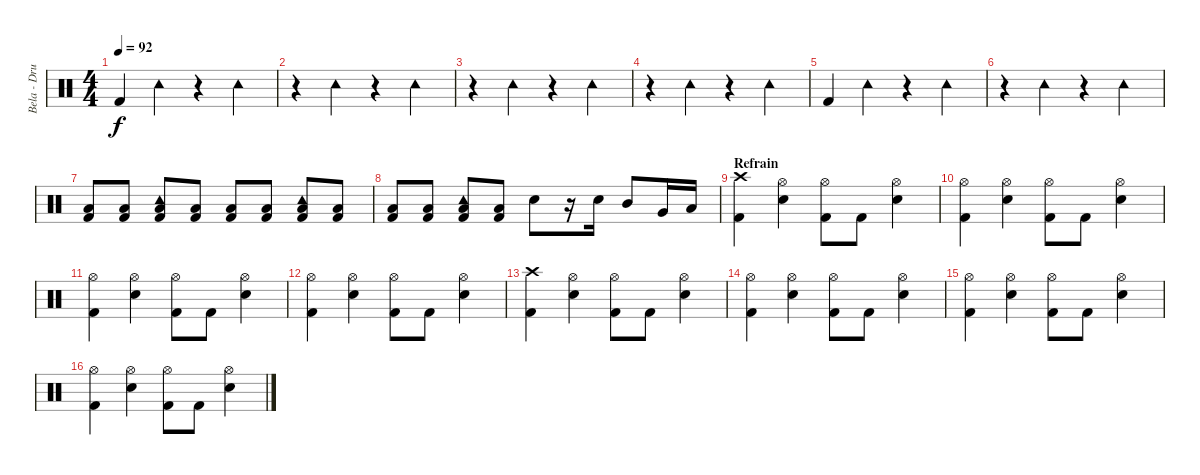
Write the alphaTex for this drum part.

\track ("Bela - Drums" "Bela - Dru") {instrument percussion}
\staff {score}
\articulation defaults
\ts (4 4)
\tempo 92
\clef neutral
\ks c "Kick (hit) 2".4{dy f} "Tambourine (hit)".4
r.4 "Tambourine (hit)".4 |
r.4 "Tambourine (hit)".4 r.4 "Tambourine (hit)".4 |
r.4 "Tambourine (hit)".4 r.4 "Tambourine (hit)".4 |
r.4 "Tambourine (hit)".4 r.4 "Tambourine (hit)".4 |
"Kick (hit) 2".4 "Tambourine (hit)".4 r.4 "Tambourine (hit)".4 |
r.4 "Tambourine (hit)".4 r.4 "Tambourine (hit)".4 |
("Low Floor Tom (hit)" "Kick (hit) 2").8 ("Low Floor Tom (hit)" "Kick (hit) 2").8 ("Tambourine (hit)" "Low Floor Tom (hit)" "Kick (hit) 2").8 ("Low Floor Tom (hit)" "Kick (hit) 2").8 ("Low Floor Tom (hit)" "Kick (hit) 2").8 ("Low Floor Tom (hit)" "Kick (hit) 2").8 ("Tambourine (hit)" "Low Floor Tom (hit)" "Kick (hit) 2").8 ("Low Floor Tom (hit)" "Kick (hit) 2").8 |
("Low Floor Tom (hit)" "Kick (hit) 2").8 ("Low Floor Tom (hit)" "Kick (hit) 2").8 ("Tambourine (hit)" "Low Floor Tom (hit)" "Kick (hit) 2").8 ("Low Floor Tom (hit)" "Kick (hit) 2").8 "Snare (hit) 2".8 r.16 "Snare (hit) 2".16 "Mid Tom (hit)".8 "Very Low Tom (hit)".16 "Low Floor Tom (hit)".16 |
\section ("" "Refrain")
("Crash high (hit)" "Kick (hit) 2").4 ("Hi-Hat (open)" "Snare (hit) 2").4 ("Hi-Hat (open)" "Kick (hit) 2").8 "Kick (hit) 2".8 ("Hi-Hat (open)" "Snare (hit) 2").4 |
("Hi-Hat (open)" "Kick (hit) 2").4 ("Hi-Hat (open)" "Snare (hit) 2").4 ("Hi-Hat (open)" "Kick (hit) 2").8 "Kick (hit) 2".8 ("Hi-Hat (open)" "Snare (hit) 2").4 |
("Hi-Hat (open)" "Kick (hit) 2").4 ("Hi-Hat (open)" "Snare (hit) 2").4 ("Hi-Hat (open)" "Kick (hit) 2").8 "Kick (hit) 2".8 ("Hi-Hat (open)" "Snare (hit) 2").4 |
("Hi-Hat (open)" "Kick (hit) 2").4 ("Hi-Hat (open)" "Snare (hit) 2").4 ("Hi-Hat (open)" "Kick (hit) 2").8 "Kick (hit) 2".8 ("Hi-Hat (open)" "Snare (hit) 2").4 |
("Crash high (hit)" "Kick (hit) 2").4 ("Hi-Hat (open)" "Snare (hit) 2").4 ("Hi-Hat (open)" "Kick (hit) 2").8 "Kick (hit) 2".8 ("Hi-Hat (open)" "Snare (hit) 2").4 |
("Hi-Hat (open)" "Kick (hit) 2").4 ("Hi-Hat (open)" "Snare (hit) 2").4 ("Hi-Hat (open)" "Kick (hit) 2").8 "Kick (hit) 2".8 ("Hi-Hat (open)" "Snare (hit) 2").4 |
("Hi-Hat (open)" "Kick (hit) 2").4 ("Hi-Hat (open)" "Snare (hit) 2").4 ("Hi-Hat (open)" "Kick (hit) 2").8 "Kick (hit) 2".8 ("Hi-Hat (open)" "Snare (hit) 2").4 |
("Hi-Hat (open)" "Kick (hit) 2").4 ("Hi-Hat (open)" "Snare (hit) 2").4 ("Hi-Hat (open)" "Kick (hit) 2").8 "Kick (hit) 2".8 ("Hi-Hat (open)" "Snare (hit) 2").4
